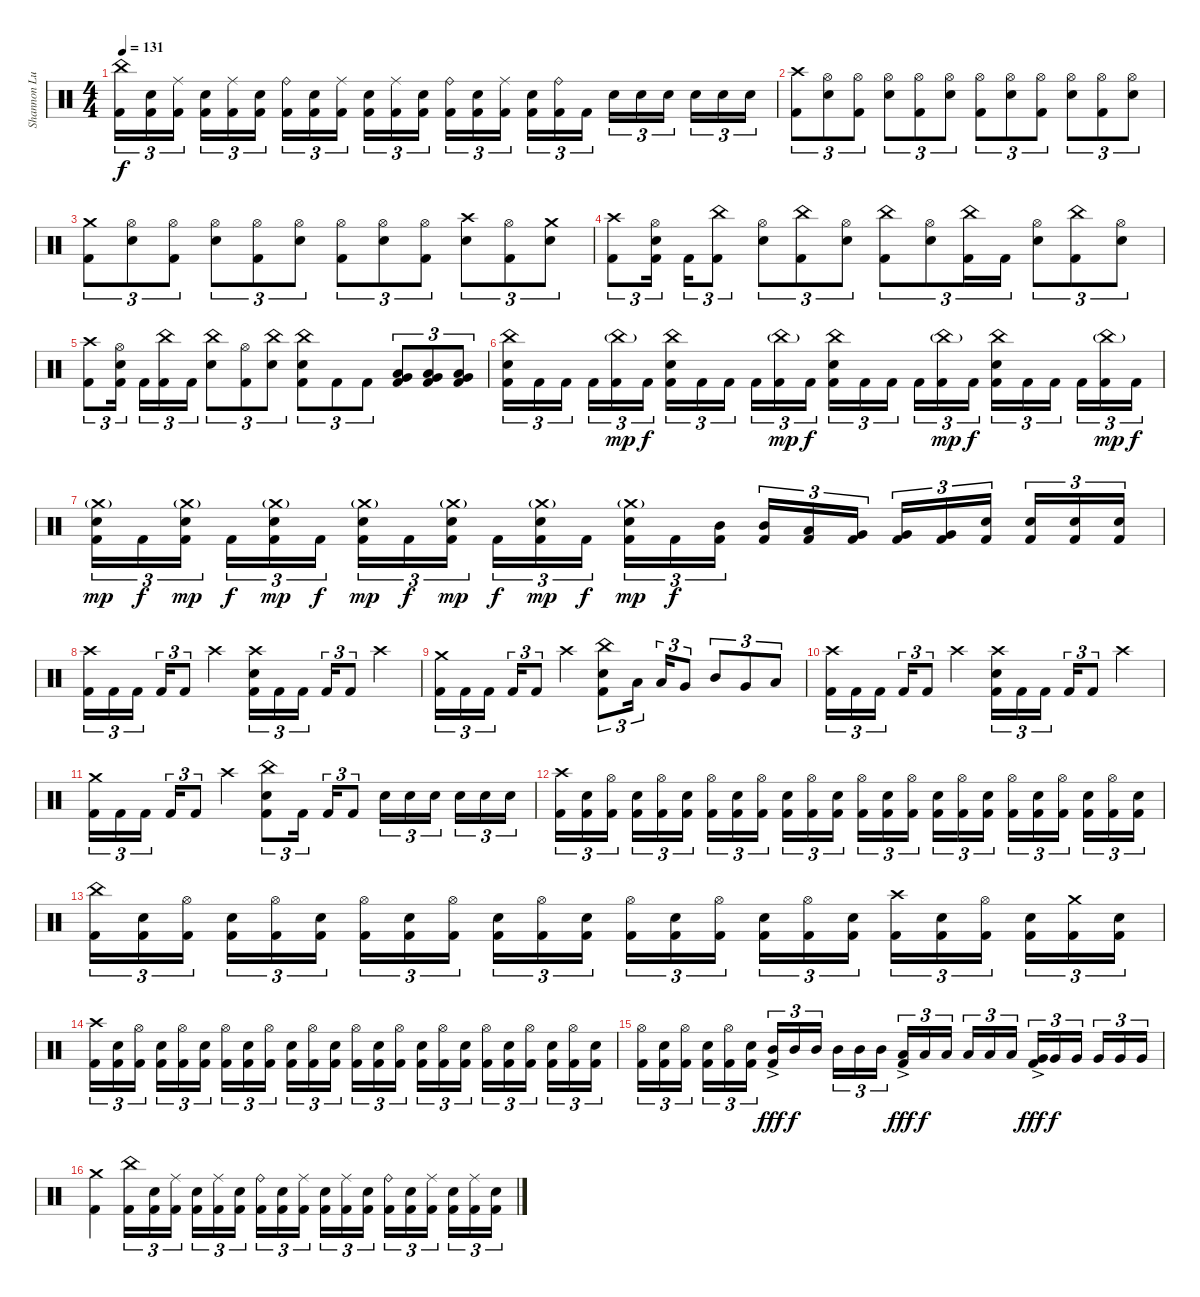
\track ("Shannon Lucas [Drums (Since 2007)]" "Shannon Lu") {instrument percussion}
\staff {score}
\articulation defaults
\ts (4 4)
\tempo 131
\clef neutral
\ks c
("China (hit)" "Kick (hit) 2").16{tu (3 2) dy f} ("Snare (hit) 2" "Kick (hit) 2").16{tu (3 2)} ("Ride (middle)" "Kick (hit) 2").16{tu (3 2)} ("Snare (hit) 2" "Kick (hit) 2").16{tu (3 2)} ("Ride (middle)" "Kick (hit) 2").16{tu (3 2)} ("Snare (hit) 2" "Kick (hit) 2").16{tu (3 2)} ("Ride (bell)" "Kick (hit) 2").16{tu (3 2)} ("Snare (hit) 2" "Kick (hit) 2").16{tu (3 2)} ("Ride (middle)" "Kick (hit) 2").16{tu (3 2)} ("Snare (hit) 2" "Kick (hit) 2").16{tu (3 2)} ("Ride (middle)" "Kick (hit) 2").16{tu (3 2)} ("Snare (hit) 2" "Kick (hit) 2").16{tu (3 2)} ("Ride (bell)" "Kick (hit) 2").16{tu (3 2)} ("Snare (hit) 2" "Kick (hit) 2").16{tu (3 2)} ("Ride (middle)" "Kick (hit) 2").16{tu (3 2)} ("Snare (hit) 2" "Kick (hit) 2").16{tu (3 2)} ("Ride (bell)" "Kick (hit) 2").16{tu (3 2)} "Kick (hit) 2".16{tu (3 2)} "Snare (hit) 2".16{tu (3 2)} "Snare (hit) 2".16{tu (3 2)} "Snare (hit) 2".16{tu (3 2)} "Snare (hit) 2".16{tu (3 2)} "Snare (hit) 2".16{tu (3 2)} "Snare (hit) 2".16{tu (3 2)} |
("Crash high (hit)" "Kick (hit) 2").8{tu (3 2)} ("Hi-Hat (open)" "Snare (hit) 2").8{tu (3 2)} ("Hi-Hat (open)" "Kick (hit) 2").8{tu (3 2)} ("Hi-Hat (open)" "Snare (hit) 2").8{tu (3 2)} ("Hi-Hat (open)" "Kick (hit) 2").8{tu (3 2)} ("Hi-Hat (open)" "Snare (hit) 2").8{tu (3 2)} ("Hi-Hat (open)" "Kick (hit) 2").8{tu (3 2)} ("Hi-Hat (open)" "Snare (hit) 2").8{tu (3 2)} ("Hi-Hat (open)" "Kick (hit) 2").8{tu (3 2)} ("Hi-Hat (open)" "Snare (hit) 2").8{tu (3 2)} ("Hi-Hat (open)" "Kick (hit) 2").8{tu (3 2)} ("Hi-Hat (open)" "Snare (hit) 2").8{tu (3 2)} |
("Crash medium (hit)" "Kick (hit) 2").8{tu (3 2)} ("Hi-Hat (open)" "Snare (hit) 2").8{tu (3 2)} ("Hi-Hat (open)" "Kick (hit) 2").8{tu (3 2)} ("Hi-Hat (open)" "Snare (hit) 2").8{tu (3 2)} ("Hi-Hat (open)" "Kick (hit) 2").8{tu (3 2)} ("Hi-Hat (open)" "Snare (hit) 2").8{tu (3 2)} ("Hi-Hat (open)" "Kick (hit) 2").8{tu (3 2)} ("Hi-Hat (open)" "Snare (hit) 2").8{tu (3 2)} ("Hi-Hat (open)" "Kick (hit) 2").8{tu (3 2)} ("Crash high (hit)" "Snare (hit) 2").8{tu (3 2)} ("Hi-Hat (open)" "Kick (hit) 2").8{tu (3 2)} ("Crash medium (hit)" "Snare (hit) 2").8{tu (3 2)} |
("Crash high (hit)" "Kick (hit) 2").8{tu (3 2)} ("Snare (hit) 2" "Hi-Hat (open)" "Kick (hit) 2").16{tu (3 2)} "Kick (hit) 2".16{tu (3 2)} ("China (hit)" "Kick (hit) 2").8{tu (3 2)} ("Hi-Hat (open)" "Snare (hit) 2").8{tu (3 2)} ("China (hit)" "Kick (hit) 2").8{tu (3 2)} ("Hi-Hat (open)" "Snare (hit) 2").8{tu (3 2)} ("China (hit)" "Kick (hit) 2").8{tu (3 2)} ("Hi-Hat (open)" "Snare (hit) 2").8{tu (3 2)} ("China (hit)" "Kick (hit) 2").16{tu (3 2)} "Kick (hit) 2".16{tu (3 2)} ("Hi-Hat (open)" "Snare (hit) 2").8{tu (3 2)} ("China (hit)" "Kick (hit) 2").8{tu (3 2)} ("Hi-Hat (open)" "Snare (hit) 2").8{tu (3 2)} |
("Crash high (hit)" "Kick (hit) 2").8{tu (3 2)} ("Snare (hit) 2" "Hi-Hat (open)" "Kick (hit) 2").16{tu (3 2)} "Kick (hit) 2".16{tu (3 2)} ("China (hit)" "Kick (hit) 2").16{tu (3 2)} "Kick (hit) 2".16{tu (3 2)} ("China (hit)" "Snare (hit) 2").8{tu (3 2)} ("Hi-Hat (open)" "Kick (hit) 2").8{tu (3 2)} ("China (hit)" "Snare (hit) 2").8{tu (3 2)} ("Kick (hit) 2" "China (hit)" "Snare (hit) 2").8{tu (3 2)} "Kick (hit) 2".8{tu (3 2)} "Kick (hit) 2".8{tu (3 2)} ("Very Low Tom (hit)" "Low Tom (hit)" "Kick (hit) 2").8{tu (3 2)} ("Low Floor Tom (hit)" "Very Low Tom (hit)" "Kick (hit) 2").8{tu (3 2)} ("Very Low Tom (hit)" "Low Floor Tom (hit)" "Kick (hit) 2").8{tu (3 2)} |
("China (hit)" "Snare (hit) 2" "Kick (hit) 2").16{tu (3 2)} "Kick (hit) 2".16{tu (3 2)} "Kick (hit) 2".16{tu (3 2)} "Kick (hit) 2".16{tu (3 2)} ("China (hit)"{g} "Kick (hit) 2").16{tu (3 2) dy mp} "Kick (hit) 2".16{tu (3 2) dy f} ("China (hit)" "Snare (hit) 2" "Kick (hit) 2").16{tu (3 2)} "Kick (hit) 2".16{tu (3 2)} "Kick (hit) 2".16{tu (3 2)} "Kick (hit) 2".16{tu (3 2)} ("China (hit)"{g} "Kick (hit) 2").16{tu (3 2) dy mp} "Kick (hit) 2".16{tu (3 2) dy f} ("China (hit)" "Snare (hit) 2" "Kick (hit) 2").16{tu (3 2)} "Kick (hit) 2".16{tu (3 2)} "Kick (hit) 2".16{tu (3 2)} "Kick (hit) 2".16{tu (3 2)} ("China (hit)"{g} "Kick (hit) 2").16{tu (3 2) dy mp} "Kick (hit) 2".16{tu (3 2) dy f} ("China (hit)" "Snare (hit) 2" "Kick (hit) 2").16{tu (3 2)} "Kick (hit) 2".16{tu (3 2)} "Kick (hit) 2".16{tu (3 2)} "Kick (hit) 2".16{tu (3 2)} ("China (hit)"{g} "Kick (hit) 2").16{tu (3 2) dy mp} "Kick (hit) 2".16{tu (3 2) dy f} |
("Crash medium (hit)"{g} "Snare (hit) 2" "Kick (hit) 2").16{tu (3 2) dy mp} "Kick (hit) 2".16{tu (3 2) dy f} ("Crash medium (hit)"{g} "Snare (hit) 2" "Kick (hit) 2").16{tu (3 2) dy mp} "Kick (hit) 2".16{tu (3 2) dy f} ("Crash medium (hit)"{g} "Snare (hit) 2" "Kick (hit) 2").16{tu (3 2) dy mp} "Kick (hit) 2".16{tu (3 2) dy f} ("Crash medium (hit)"{g} "Snare (hit) 2" "Kick (hit) 2").16{tu (3 2) dy mp} "Kick (hit) 2".16{tu (3 2) dy f} ("Crash medium (hit)"{g} "Snare (hit) 2" "Kick (hit) 2").16{tu (3 2) dy mp} "Kick (hit) 2".16{tu (3 2) dy f} ("Crash medium (hit)"{g} "Snare (hit) 2" "Kick (hit) 2").16{tu (3 2) dy mp} "Kick (hit) 2".16{tu (3 2) dy f} ("Crash medium (hit)"{g} "Snare (hit) 2" "Kick (hit) 2").16{tu (3 2) dy mp} "Kick (hit) 2".16{tu (3 2) dy f} ("Mid Tom (hit)" "Kick (hit) 2").16{tu (3 2)} ("Mid Tom (hit)" "Kick (hit) 2").16{tu (3 2)} ("Low Tom (hit)" "Kick (hit) 2").16{tu (3 2)} ("Very Low Tom (hit)" "Kick (hit) 2").16{tu (3 2)} ("Very Low Tom (hit)" "Kick (hit) 2").16{tu (3 2)} ("Very Low Tom (hit)" "Kick (hit) 2").16{tu (3 2)} ("Snare (hit) 2" "Kick (hit) 2").16{tu (3 2)} ("Snare (hit) 2" "Kick (hit) 2").16{tu (3 2)} ("Snare (hit) 2" "Kick (hit) 2").16{tu (3 2)} ("Snare (hit) 2" "Kick (hit) 2").16{tu (3 2)} |
("Crash high (hit)" "Kick (hit) 2").16{tu (3 2)} "Kick (hit) 2".16{tu (3 2)} "Kick (hit) 2".16{tu (3 2)} "Kick (hit) 2".16{tu (3 2)} "Kick (hit) 2".8{tu (3 2)} "Crash high (hit)".4 ("Snare (hit) 2" "Crash high (hit)" "Kick (hit) 2").16{tu (3 2)} "Kick (hit) 2".16{tu (3 2)} "Kick (hit) 2".16{tu (3 2)} "Kick (hit) 2".16{tu (3 2)} "Kick (hit) 2".8{tu (3 2)} "Crash high (hit)".4 |
("Crash medium (hit)" "Kick (hit) 2").16{tu (3 2)} "Kick (hit) 2".16{tu (3 2)} "Kick (hit) 2".16{tu (3 2)} "Kick (hit) 2".16{tu (3 2)} "Kick (hit) 2".8{tu (3 2)} "Crash high (hit)".4 ("Snare (hit) 2" "China (hit)" "Kick (hit) 2").8{tu (3 2)} "Low Tom (hit)".16{tu (3 2)} "Low Tom (hit)".16{tu (3 2)} "Very Low Tom (hit)".8{tu (3 2)} "Mid Tom (hit)".8{tu (3 2)} "Very Low Tom (hit)".8{tu (3 2)} "Low Floor Tom (hit)".8{tu (3 2)} |
("Crash high (hit)" "Kick (hit) 2").16{tu (3 2)} "Kick (hit) 2".16{tu (3 2)} "Kick (hit) 2".16{tu (3 2)} "Kick (hit) 2".16{tu (3 2)} "Kick (hit) 2".8{tu (3 2)} "Crash high (hit)".4 ("Snare (hit) 2" "Crash high (hit)" "Kick (hit) 2").16{tu (3 2)} "Kick (hit) 2".16{tu (3 2)} "Kick (hit) 2".16{tu (3 2)} "Kick (hit) 2".16{tu (3 2)} "Kick (hit) 2".8{tu (3 2)} "Crash high (hit)".4 |
("Crash medium (hit)" "Kick (hit) 2").16{tu (3 2)} "Kick (hit) 2".16{tu (3 2)} "Kick (hit) 2".16{tu (3 2)} "Kick (hit) 2".16{tu (3 2)} "Kick (hit) 2".8{tu (3 2)} "Crash high (hit)".4 ("Snare (hit) 2" "China (hit)" "Kick (hit) 2").8{tu (3 2)} "Kick (hit) 2".16{tu (3 2)} "Kick (hit) 2".16{tu (3 2)} "Kick (hit) 2".8{tu (3 2)} "Snare (hit) 2".16{tu (3 2)} "Snare (hit) 2".16{tu (3 2)} "Snare (hit) 2".16{tu (3 2)} "Snare (hit) 2".16{tu (3 2)} "Snare (hit) 2".16{tu (3 2)} "Snare (hit) 2".16{tu (3 2)} |
("Crash high (hit)" "Kick (hit) 2").16{tu (3 2)} ("Snare (hit) 2" "Kick (hit) 2").16{tu (3 2)} ("Hi-Hat (open)" "Kick (hit) 2").16{tu (3 2)} ("Snare (hit) 2" "Kick (hit) 2").16{tu (3 2)} ("Hi-Hat (open)" "Kick (hit) 2").16{tu (3 2)} ("Snare (hit) 2" "Kick (hit) 2").16{tu (3 2)} ("Hi-Hat (open)" "Kick (hit) 2").16{tu (3 2)} ("Snare (hit) 2" "Kick (hit) 2").16{tu (3 2)} ("Hi-Hat (open)" "Kick (hit) 2").16{tu (3 2)} ("Snare (hit) 2" "Kick (hit) 2").16{tu (3 2)} ("Hi-Hat (open)" "Kick (hit) 2").16{tu (3 2)} ("Snare (hit) 2" "Kick (hit) 2").16{tu (3 2)} ("Hi-Hat (open)" "Kick (hit) 2").16{tu (3 2)} ("Snare (hit) 2" "Kick (hit) 2").16{tu (3 2)} ("Hi-Hat (open)" "Kick (hit) 2").16{tu (3 2)} ("Snare (hit) 2" "Kick (hit) 2").16{tu (3 2)} ("Hi-Hat (open)" "Kick (hit) 2").16{tu (3 2)} ("Snare (hit) 2" "Kick (hit) 2").16{tu (3 2)} ("Hi-Hat (open)" "Kick (hit) 2").16{tu (3 2)} ("Snare (hit) 2" "Kick (hit) 2").16{tu (3 2)} ("Hi-Hat (open)" "Kick (hit) 2").16{tu (3 2)} ("Snare (hit) 2" "Kick (hit) 2").16{tu (3 2)} ("Hi-Hat (open)" "Kick (hit) 2").16{tu (3 2)} ("Snare (hit) 2" "Kick (hit) 2").16{tu (3 2)} |
("China (hit)" "Kick (hit) 2").16{tu (3 2)} ("Snare (hit) 2" "Kick (hit) 2").16{tu (3 2)} ("Hi-Hat (open)" "Kick (hit) 2").16{tu (3 2)} ("Snare (hit) 2" "Kick (hit) 2").16{tu (3 2)} ("Hi-Hat (open)" "Kick (hit) 2").16{tu (3 2)} ("Snare (hit) 2" "Kick (hit) 2").16{tu (3 2)} ("Hi-Hat (open)" "Kick (hit) 2").16{tu (3 2)} ("Snare (hit) 2" "Kick (hit) 2").16{tu (3 2)} ("Hi-Hat (open)" "Kick (hit) 2").16{tu (3 2)} ("Snare (hit) 2" "Kick (hit) 2").16{tu (3 2)} ("Hi-Hat (open)" "Kick (hit) 2").16{tu (3 2)} ("Snare (hit) 2" "Kick (hit) 2").16{tu (3 2)} ("Hi-Hat (open)" "Kick (hit) 2").16{tu (3 2)} ("Snare (hit) 2" "Kick (hit) 2").16{tu (3 2)} ("Hi-Hat (open)" "Kick (hit) 2").16{tu (3 2)} ("Snare (hit) 2" "Kick (hit) 2").16{tu (3 2)} ("Hi-Hat (open)" "Kick (hit) 2").16{tu (3 2)} ("Snare (hit) 2" "Kick (hit) 2").16{tu (3 2)} ("Crash high (hit)" "Kick (hit) 2").16{tu (3 2)} ("Snare (hit) 2" "Kick (hit) 2").16{tu (3 2)} ("Hi-Hat (open)" "Kick (hit) 2").16{tu (3 2)} ("Snare (hit) 2" "Kick (hit) 2").16{tu (3 2)} ("Crash medium (hit)" "Kick (hit) 2").16{tu (3 2)} ("Snare (hit) 2" "Kick (hit) 2").16{tu (3 2)} |
("Crash high (hit)" "Kick (hit) 2").16{tu (3 2)} ("Snare (hit) 2" "Kick (hit) 2").16{tu (3 2)} ("Hi-Hat (open)" "Kick (hit) 2").16{tu (3 2)} ("Snare (hit) 2" "Kick (hit) 2").16{tu (3 2)} ("Hi-Hat (open)" "Kick (hit) 2").16{tu (3 2)} ("Snare (hit) 2" "Kick (hit) 2").16{tu (3 2)} ("Hi-Hat (open)" "Kick (hit) 2").16{tu (3 2)} ("Snare (hit) 2" "Kick (hit) 2").16{tu (3 2)} ("Hi-Hat (open)" "Kick (hit) 2").16{tu (3 2)} ("Snare (hit) 2" "Kick (hit) 2").16{tu (3 2)} ("Hi-Hat (open)" "Kick (hit) 2").16{tu (3 2)} ("Snare (hit) 2" "Kick (hit) 2").16{tu (3 2)} ("Hi-Hat (open)" "Kick (hit) 2").16{tu (3 2)} ("Snare (hit) 2" "Kick (hit) 2").16{tu (3 2)} ("Hi-Hat (open)" "Kick (hit) 2").16{tu (3 2)} ("Snare (hit) 2" "Kick (hit) 2").16{tu (3 2)} ("Hi-Hat (open)" "Kick (hit) 2").16{tu (3 2)} ("Snare (hit) 2" "Kick (hit) 2").16{tu (3 2)} ("Hi-Hat (open)" "Kick (hit) 2").16{tu (3 2)} ("Snare (hit) 2" "Kick (hit) 2").16{tu (3 2)} ("Hi-Hat (open)" "Kick (hit) 2").16{tu (3 2)} ("Snare (hit) 2" "Kick (hit) 2").16{tu (3 2)} ("Hi-Hat (open)" "Kick (hit) 2").16{tu (3 2)} ("Snare (hit) 2" "Kick (hit) 2").16{tu (3 2)} |
("Hi-Hat (open)" "Kick (hit) 2").16{tu (3 2)} ("Snare (hit) 2" "Kick (hit) 2").16{tu (3 2)} ("Hi-Hat (open)" "Kick (hit) 2").16{tu (3 2)} ("Snare (hit) 2" "Kick (hit) 2").16{tu (3 2)} ("Hi-Hat (open)" "Kick (hit) 2").16{tu (3 2)} ("Snare (hit) 2" "Kick (hit) 2").16{tu (3 2)} ("Mid Tom (hit)"{ac} "Kick (hit) 2").16{tu (3 2) dy fff} "Mid Tom (hit)".16{tu (3 2) dy f} "Mid Tom (hit)".16{tu (3 2)} "Mid Tom (hit)".16{tu (3 2)} "Mid Tom (hit)".16{tu (3 2)} "Mid Tom (hit)".16{tu (3 2)} ("Low Tom (hit)"{ac} "Kick (hit) 2").16{tu (3 2) dy fff} "Low Tom (hit)".16{tu (3 2) dy f} "Low Tom (hit)".16{tu (3 2)} "Low Tom (hit)".16{tu (3 2)} "Low Tom (hit)".16{tu (3 2)} "Low Tom (hit)".16{tu (3 2)} ("Very Low Tom (hit)"{ac} "Kick (hit) 2").16{tu (3 2) dy fff} "Very Low Tom (hit)".16{tu (3 2) dy f} "Very Low Tom (hit)".16{tu (3 2)} "Very Low Tom (hit)".16{tu (3 2)} "Very Low Tom (hit)".16{tu (3 2)} "Very Low Tom (hit)".16{tu (3 2)} |
("Crash medium (hit)" "Kick (hit) 2").4 ("China (hit)" "Kick (hit) 2").16{tu (3 2)} ("Snare (hit) 2" "Kick (hit) 2").16{tu (3 2)} ("Ride (middle)" "Kick (hit) 2").16{tu (3 2)} ("Snare (hit) 2" "Kick (hit) 2").16{tu (3 2)} ("Ride (middle)" "Kick (hit) 2").16{tu (3 2)} ("Snare (hit) 2" "Kick (hit) 2").16{tu (3 2)} ("Ride (bell)" "Kick (hit) 2").16{tu (3 2)} ("Snare (hit) 2" "Kick (hit) 2").16{tu (3 2)} ("Ride (middle)" "Kick (hit) 2").16{tu (3 2)} ("Snare (hit) 2" "Kick (hit) 2").16{tu (3 2)} ("Ride (middle)" "Kick (hit) 2").16{tu (3 2)} ("Snare (hit) 2" "Kick (hit) 2").16{tu (3 2)} ("Ride (bell)" "Kick (hit) 2").16{tu (3 2)} ("Snare (hit) 2" "Kick (hit) 2").16{tu (3 2)} ("Ride (middle)" "Kick (hit) 2").16{tu (3 2)} ("Snare (hit) 2" "Kick (hit) 2").16{tu (3 2)} ("Ride (middle)" "Kick (hit) 2").16{tu (3 2)} ("Snare (hit) 2" "Kick (hit) 2").16{tu (3 2)}
